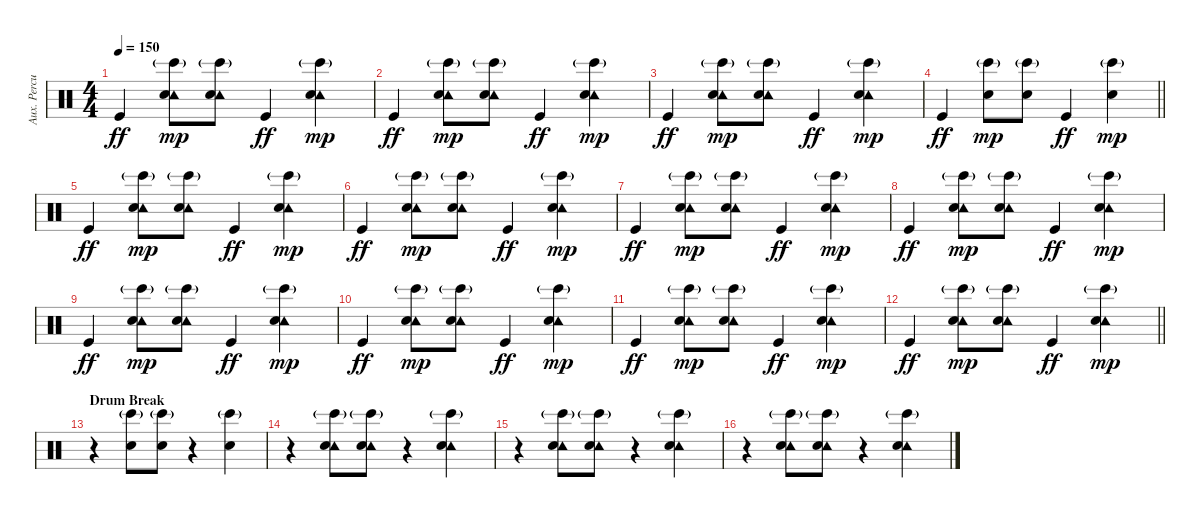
\track ("Aux. Percussion" "Aux. Percu") {instrument percussion}
\staff {score}
\articulation defaults
\ts (4 4)
\tempo 150
\clef neutral
\ks c "Kick (hit)".4{dy ff}
("Tambourine (hit)" "Hand Clap (hit)" "Bongo High (hit)"{g}).8{dy mp} ("Tambourine (hit)" "Hand Clap (hit)" "Bongo High (hit)"{g}).8 "Kick (hit)".4{dy ff} ("Tambourine (hit)" "Hand Clap (hit)" "Bongo High (hit)"{g}).4{dy mp} |
"Kick (hit)".4{dy ff} ("Tambourine (hit)" "Hand Clap (hit)" "Bongo High (hit)"{g}).8{dy mp} ("Tambourine (hit)" "Hand Clap (hit)" "Bongo High (hit)"{g}).8 "Kick (hit)".4{dy ff} ("Tambourine (hit)" "Hand Clap (hit)" "Bongo High (hit)"{g}).4{dy mp} |
"Kick (hit)".4{dy ff} ("Tambourine (hit)" "Hand Clap (hit)" "Bongo High (hit)"{g}).8{dy mp} ("Tambourine (hit)" "Hand Clap (hit)" "Bongo High (hit)"{g}).8 "Kick (hit)".4{dy ff} ("Tambourine (hit)" "Hand Clap (hit)" "Bongo High (hit)"{g}).4{dy mp} |
\barLineRight lightlight "Kick (hit)".4{dy ff}
("Hand Clap (hit)" "Bongo High (hit)"{g}).8{dy mp} ("Hand Clap (hit)" "Bongo High (hit)"{g}).8 "Kick (hit)".4{dy ff} ("Hand Clap (hit)" "Bongo High (hit)"{g}).4{dy mp} |
"Kick (hit)".4{dy ff} ("Tambourine (hit)" "Hand Clap (hit)" "Bongo High (hit)"{g}).8{dy mp} ("Tambourine (hit)" "Hand Clap (hit)" "Bongo High (hit)"{g}).8 "Kick (hit)".4{dy ff} ("Tambourine (hit)" "Hand Clap (hit)" "Bongo High (hit)"{g}).4{dy mp} |
"Kick (hit)".4{dy ff} ("Tambourine (hit)" "Hand Clap (hit)" "Bongo High (hit)"{g}).8{dy mp} ("Tambourine (hit)" "Hand Clap (hit)" "Bongo High (hit)"{g}).8 "Kick (hit)".4{dy ff} ("Tambourine (hit)" "Hand Clap (hit)" "Bongo High (hit)"{g}).4{dy mp} |
"Kick (hit)".4{dy ff} ("Tambourine (hit)" "Hand Clap (hit)" "Bongo High (hit)"{g}).8{dy mp} ("Tambourine (hit)" "Hand Clap (hit)" "Bongo High (hit)"{g}).8 "Kick (hit)".4{dy ff} ("Tambourine (hit)" "Hand Clap (hit)" "Bongo High (hit)"{g}).4{dy mp} |
"Kick (hit)".4{dy ff} ("Tambourine (hit)" "Hand Clap (hit)" "Bongo High (hit)"{g}).8{dy mp} ("Tambourine (hit)" "Hand Clap (hit)" "Bongo High (hit)"{g}).8 "Kick (hit)".4{dy ff} ("Tambourine (hit)" "Hand Clap (hit)" "Bongo High (hit)"{g}).4{dy mp} |
"Kick (hit)".4{dy ff} ("Tambourine (hit)" "Hand Clap (hit)" "Bongo High (hit)"{g}).8{dy mp} ("Tambourine (hit)" "Hand Clap (hit)" "Bongo High (hit)"{g}).8 "Kick (hit)".4{dy ff} ("Tambourine (hit)" "Hand Clap (hit)" "Bongo High (hit)"{g}).4{dy mp} |
"Kick (hit)".4{dy ff} ("Tambourine (hit)" "Hand Clap (hit)" "Bongo High (hit)"{g}).8{dy mp} ("Tambourine (hit)" "Hand Clap (hit)" "Bongo High (hit)"{g}).8 "Kick (hit)".4{dy ff} ("Tambourine (hit)" "Hand Clap (hit)" "Bongo High (hit)"{g}).4{dy mp} |
"Kick (hit)".4{dy ff} ("Tambourine (hit)" "Hand Clap (hit)" "Bongo High (hit)"{g}).8{dy mp} ("Tambourine (hit)" "Hand Clap (hit)" "Bongo High (hit)"{g}).8 "Kick (hit)".4{dy ff} ("Tambourine (hit)" "Hand Clap (hit)" "Bongo High (hit)"{g}).4{dy mp} |
\barLineRight lightlight "Kick (hit)".4{dy ff}
("Tambourine (hit)" "Hand Clap (hit)" "Bongo High (hit)"{g}).8{dy mp} ("Tambourine (hit)" "Hand Clap (hit)" "Bongo High (hit)"{g}).8 "Kick (hit)".4{dy ff} ("Tambourine (hit)" "Hand Clap (hit)" "Bongo High (hit)"{g}).4{dy mp} |
\section ("" "Drum Break")
r.4 ("Hand Clap (hit)" "Bongo High (hit)"{g}).8 ("Hand Clap (hit)" "Bongo High (hit)"{g}).8 r.4 ("Hand Clap (hit)" "Bongo High (hit)"{g}).4 |
r.4 ("Tambourine (hit)" "Hand Clap (hit)" "Bongo High (hit)"{g}).8 ("Tambourine (hit)" "Hand Clap (hit)" "Bongo High (hit)"{g}).8 r.4 ("Tambourine (hit)" "Hand Clap (hit)" "Bongo High (hit)"{g}).4 |
r.4 ("Tambourine (hit)" "Hand Clap (hit)" "Bongo High (hit)"{g}).8 ("Tambourine (hit)" "Hand Clap (hit)" "Bongo High (hit)"{g}).8 r.4 ("Tambourine (hit)" "Hand Clap (hit)" "Bongo High (hit)"{g}).4 |
r.4 ("Tambourine (hit)" "Hand Clap (hit)" "Bongo High (hit)"{g}).8 ("Tambourine (hit)" "Hand Clap (hit)" "Bongo High (hit)"{g}).8 r.4 ("Tambourine (hit)" "Hand Clap (hit)" "Bongo High (hit)"{g}).4
